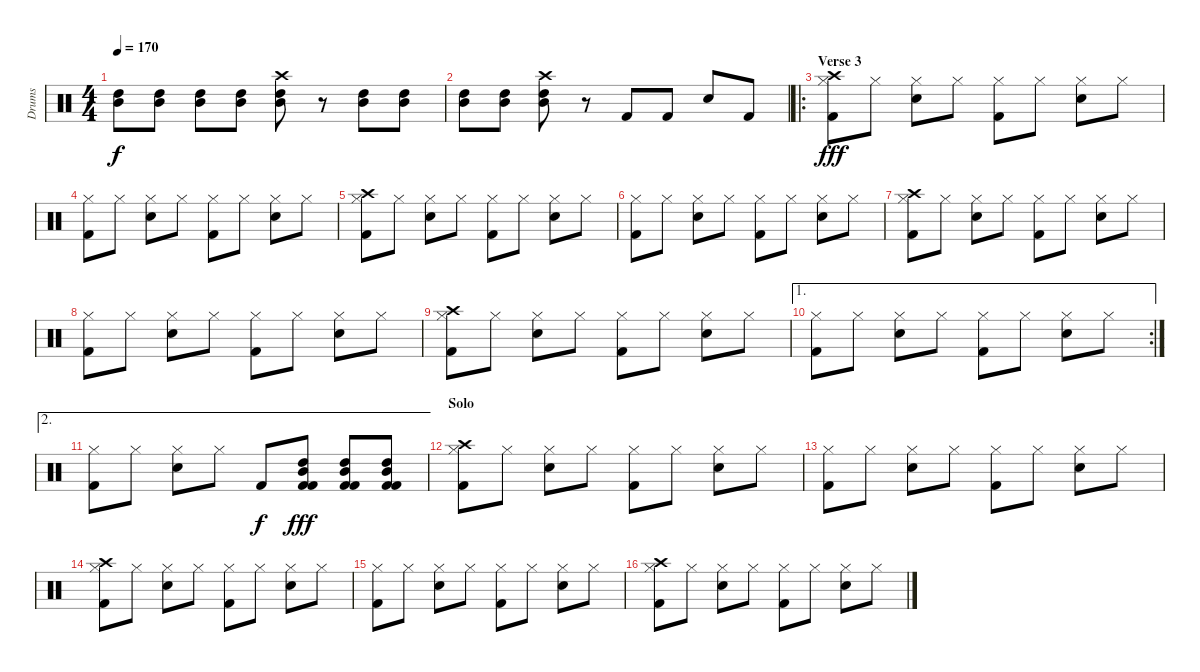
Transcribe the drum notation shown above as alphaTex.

\track ("Drums" "Drums") {instrument percussion}
\staff {score}
\articulation defaults
\ts (4 4)
\tempo 170
\clef neutral
\ks c
("High Tom (hit)" "Mid Tom (hit)").8{dy f} ("High Tom (hit)" "Mid Tom (hit)").8 ("High Tom (hit)" "Mid Tom (hit)").8 ("High Tom (hit)" "Mid Tom (hit)").8 ("Crash high (hit)" "High Tom (hit)" "Mid Tom (hit)").8 r.8 ("High Tom (hit)" "Mid Tom (hit)").8 ("High Tom (hit)" "Mid Tom (hit)").8 |
("High Tom (hit)" "Mid Tom (hit)").8 ("High Tom (hit)" "Mid Tom (hit)").8 ("Crash high (hit)" "High Tom (hit)" "Mid Tom (hit)").8 r.8 "Kick (hit) 2".8 "Kick (hit) 2".8 "Snare (hit) 2".8 "Kick (hit) 2".8 |
\ro
\section ("" "Verse 3")
("Crash high (hit)" "Hi-Hat (closed)" "Kick (hit) 2").8{dy fff} "Hi-Hat (closed)".8 ("Hi-Hat (closed)" "Electric Snare (hit)").8 "Hi-Hat (closed)".8 ("Hi-Hat (closed)" "Kick (hit) 2").8 "Hi-Hat (closed)".8 ("Hi-Hat (closed)" "Electric Snare (hit)").8 "Hi-Hat (closed)".8 |
("Hi-Hat (closed)" "Kick (hit) 2").8 "Hi-Hat (closed)".8 ("Hi-Hat (closed)" "Electric Snare (hit)").8 "Hi-Hat (closed)".8 ("Hi-Hat (closed)" "Kick (hit) 2").8 "Hi-Hat (closed)".8 ("Hi-Hat (closed)" "Electric Snare (hit)").8 "Hi-Hat (closed)".8 |
("Crash high (hit)" "Hi-Hat (closed)" "Kick (hit) 2").8 "Hi-Hat (closed)".8 ("Hi-Hat (closed)" "Electric Snare (hit)").8 "Hi-Hat (closed)".8 ("Hi-Hat (closed)" "Kick (hit) 2").8 "Hi-Hat (closed)".8 ("Hi-Hat (closed)" "Electric Snare (hit)").8 "Hi-Hat (closed)".8 |
("Hi-Hat (closed)" "Kick (hit) 2").8 "Hi-Hat (closed)".8 ("Hi-Hat (closed)" "Electric Snare (hit)").8 "Hi-Hat (closed)".8 ("Hi-Hat (closed)" "Kick (hit) 2").8 "Hi-Hat (closed)".8 ("Hi-Hat (closed)" "Electric Snare (hit)").8 "Hi-Hat (closed)".8 |
("Crash high (hit)" "Hi-Hat (closed)" "Kick (hit) 2").8 "Hi-Hat (closed)".8 ("Hi-Hat (closed)" "Electric Snare (hit)").8 "Hi-Hat (closed)".8 ("Hi-Hat (closed)" "Kick (hit) 2").8 "Hi-Hat (closed)".8 ("Hi-Hat (closed)" "Electric Snare (hit)").8 "Hi-Hat (closed)".8 |
("Hi-Hat (closed)" "Kick (hit) 2").8 "Hi-Hat (closed)".8 ("Hi-Hat (closed)" "Electric Snare (hit)").8 "Hi-Hat (closed)".8 ("Hi-Hat (closed)" "Kick (hit) 2").8 "Hi-Hat (closed)".8 ("Hi-Hat (closed)" "Electric Snare (hit)").8 "Hi-Hat (closed)".8 |
("Crash high (hit)" "Hi-Hat (closed)" "Kick (hit) 2").8 "Hi-Hat (closed)".8 ("Hi-Hat (closed)" "Electric Snare (hit)").8 "Hi-Hat (closed)".8 ("Hi-Hat (closed)" "Kick (hit) 2").8 "Hi-Hat (closed)".8 ("Hi-Hat (closed)" "Electric Snare (hit)").8 "Hi-Hat (closed)".8 |
\ae 1
\rc 2
("Hi-Hat (closed)" "Kick (hit) 2").8 "Hi-Hat (closed)".8 ("Hi-Hat (closed)" "Electric Snare (hit)").8 "Hi-Hat (closed)".8 ("Hi-Hat (closed)" "Kick (hit) 2").8 "Hi-Hat (closed)".8 ("Hi-Hat (closed)" "Electric Snare (hit)").8 "Hi-Hat (closed)".8 |
\ae 2
("Hi-Hat (closed)" "Kick (hit) 2").8 "Hi-Hat (closed)".8 ("Hi-Hat (closed)" "Electric Snare (hit)").8 "Hi-Hat (closed)".8 "Kick (hit) 2".8{dy f} ("High Tom (hit)" "Kick (hit) 2" "Mid Tom (hit)" "Kick (hit) 2").8{dy fff} ("High Tom (hit)" "Kick (hit) 2" "Mid Tom (hit)" "Kick (hit) 2").8 ("High Tom (hit)" "Kick (hit) 2" "Mid Tom (hit)" "Kick (hit) 2").8 |
\section ("" "Solo")
("Crash high (hit)" "Hi-Hat (closed)" "Kick (hit) 2").8 "Hi-Hat (closed)".8 ("Hi-Hat (closed)" "Electric Snare (hit)").8 "Hi-Hat (closed)".8 ("Hi-Hat (closed)" "Kick (hit) 2").8 "Hi-Hat (closed)".8 ("Hi-Hat (closed)" "Electric Snare (hit)").8 "Hi-Hat (closed)".8 |
("Hi-Hat (closed)" "Kick (hit) 2").8 "Hi-Hat (closed)".8 ("Hi-Hat (closed)" "Electric Snare (hit)").8 "Hi-Hat (closed)".8 ("Hi-Hat (closed)" "Kick (hit) 2").8 "Hi-Hat (closed)".8 ("Hi-Hat (closed)" "Electric Snare (hit)").8 "Hi-Hat (closed)".8 |
("Crash high (hit)" "Hi-Hat (closed)" "Kick (hit) 2").8 "Hi-Hat (closed)".8 ("Hi-Hat (closed)" "Electric Snare (hit)").8 "Hi-Hat (closed)".8 ("Hi-Hat (closed)" "Kick (hit) 2").8 "Hi-Hat (closed)".8 ("Hi-Hat (closed)" "Electric Snare (hit)").8 "Hi-Hat (closed)".8 |
("Hi-Hat (closed)" "Kick (hit) 2").8 "Hi-Hat (closed)".8 ("Hi-Hat (closed)" "Electric Snare (hit)").8 "Hi-Hat (closed)".8 ("Hi-Hat (closed)" "Kick (hit) 2").8 "Hi-Hat (closed)".8 ("Hi-Hat (closed)" "Electric Snare (hit)").8 "Hi-Hat (closed)".8 |
("Crash high (hit)" "Hi-Hat (closed)" "Kick (hit) 2").8 "Hi-Hat (closed)".8 ("Hi-Hat (closed)" "Electric Snare (hit)").8 "Hi-Hat (closed)".8 ("Hi-Hat (closed)" "Kick (hit) 2").8 "Hi-Hat (closed)".8 ("Hi-Hat (closed)" "Electric Snare (hit)").8 "Hi-Hat (closed)".8
